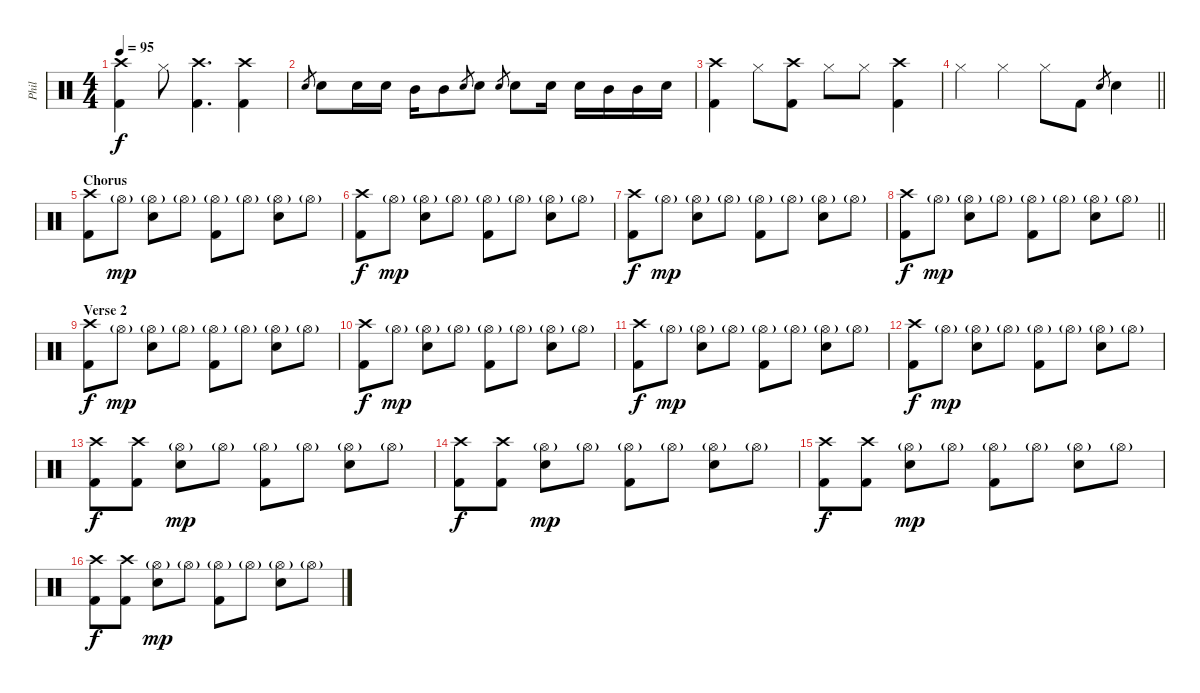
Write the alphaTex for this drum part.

\track ("Phil" "Phil") {instrument percussion}
\staff {score}
\articulation defaults
\ts (4 4)
\tempo 95
\clef neutral
\ks c
("Crash high (hit)" "Kick (hit) 2").4{dy f} "Hi-Hat (closed)".8 ("Crash high (hit)" "Kick (hit) 2").4{d} ("Crash high (hit)" "Kick (hit) 2").4 |
"Snare (hit) 2".8{gr} "Snare (hit) 2".8 "Snare (hit) 2".16 "Snare (hit) 2".16 "Mid Tom (hit)".16 "Mid Tom (hit)".8 "Snare (hit) 2".8{gr} "Snare (hit) 2".8 "Snare (hit) 2".8{gr} "Snare (hit) 2".8 "Snare (hit) 2".16 "Snare (hit) 2".16 "Mid Tom (hit)".16 "Mid Tom (hit)".16 "Snare (hit) 2".16 |
("Crash high (hit)" "Kick (hit) 2").4 "Hi-Hat (closed)".8 ("Crash high (hit)" "Kick (hit) 2").8 "Hi-Hat (closed)".8 "Hi-Hat (closed)".8 ("Crash high (hit)" "Kick (hit) 2").4 |
\barLineRight lightlight "Hi-Hat (closed)".4 "Hi-Hat (closed)".4 "Hi-Hat (closed)".8 "Kick (hit) 2".8 "Snare (hit) 2".8{gr} "Snare (hit) 2".4
|
\section ("" "Chorus")
("Crash high (hit)" "Kick (hit) 2").8 "Hi-Hat (open)"{g}.8{dy mp} ("Hi-Hat (open)"{g} "Snare (hit) 2").8 "Hi-Hat (open)"{g}.8 ("Hi-Hat (open)"{g} "Kick (hit) 2").8 "Hi-Hat (open)"{g}.8 ("Hi-Hat (open)"{g} "Snare (hit) 2").8 "Hi-Hat (open)"{g}.8 |
("Crash high (hit)" "Kick (hit) 2").8{dy f} "Hi-Hat (open)"{g}.8{dy mp} ("Hi-Hat (open)"{g} "Snare (hit) 2").8 "Hi-Hat (open)"{g}.8 ("Hi-Hat (open)"{g} "Kick (hit) 2").8 "Hi-Hat (open)"{g}.8 ("Hi-Hat (open)"{g} "Snare (hit) 2").8 "Hi-Hat (open)"{g}.8 |
("Crash high (hit)" "Kick (hit) 2").8{dy f} "Hi-Hat (open)"{g}.8{dy mp} ("Hi-Hat (open)"{g} "Snare (hit) 2").8 "Hi-Hat (open)"{g}.8 ("Hi-Hat (open)"{g} "Kick (hit) 2").8 "Hi-Hat (open)"{g}.8 ("Hi-Hat (open)"{g} "Snare (hit) 2").8 "Hi-Hat (open)"{g}.8 |
\barLineRight lightlight
("Crash high (hit)" "Kick (hit) 2").8{dy f} "Hi-Hat (open)"{g}.8{dy mp} ("Hi-Hat (open)"{g} "Snare (hit) 2").8 "Hi-Hat (open)"{g}.8 ("Hi-Hat (open)"{g} "Kick (hit) 2").8 "Hi-Hat (open)"{g}.8 ("Hi-Hat (open)"{g} "Snare (hit) 2").8 "Hi-Hat (open)"{g}.8 |
\section ("" "Verse 2")
("Crash high (hit)" "Kick (hit) 2").8{dy f} "Hi-Hat (open)"{g}.8{dy mp} ("Hi-Hat (open)"{g} "Snare (hit) 2").8 "Hi-Hat (open)"{g}.8 ("Hi-Hat (open)"{g} "Kick (hit) 2").8 "Hi-Hat (open)"{g}.8 ("Hi-Hat (open)"{g} "Snare (hit) 2").8 "Hi-Hat (open)"{g}.8 |
("Crash high (hit)" "Kick (hit) 2").8{dy f} "Hi-Hat (open)"{g}.8{dy mp} ("Hi-Hat (open)"{g} "Snare (hit) 2").8 "Hi-Hat (open)"{g}.8 ("Hi-Hat (open)"{g} "Kick (hit) 2").8 "Hi-Hat (open)"{g}.8 ("Hi-Hat (open)"{g} "Snare (hit) 2").8 "Hi-Hat (open)"{g}.8 |
("Crash high (hit)" "Kick (hit) 2").8{dy f} "Hi-Hat (open)"{g}.8{dy mp} ("Hi-Hat (open)"{g} "Snare (hit) 2").8 "Hi-Hat (open)"{g}.8 ("Hi-Hat (open)"{g} "Kick (hit) 2").8 "Hi-Hat (open)"{g}.8 ("Hi-Hat (open)"{g} "Snare (hit) 2").8 "Hi-Hat (open)"{g}.8 |
("Crash high (hit)" "Kick (hit) 2").8{dy f} "Hi-Hat (open)"{g}.8{dy mp} ("Hi-Hat (open)"{g} "Snare (hit) 2").8 "Hi-Hat (open)"{g}.8 ("Hi-Hat (open)"{g} "Kick (hit) 2").8 "Hi-Hat (open)"{g}.8 ("Hi-Hat (open)"{g} "Snare (hit) 2").8 "Hi-Hat (open)"{g}.8 |
("Crash high (hit)" "Kick (hit) 2").8{dy f} ("Crash high (hit)" "Kick (hit) 2").8 ("Hi-Hat (open)"{g} "Snare (hit) 2").8{dy mp} "Hi-Hat (open)"{g}.8 ("Hi-Hat (open)"{g} "Kick (hit) 2").8 "Hi-Hat (open)"{g}.8 ("Hi-Hat (open)"{g} "Snare (hit) 2").8 "Hi-Hat (open)"{g}.8 |
("Crash high (hit)" "Kick (hit) 2").8{dy f} ("Crash high (hit)" "Kick (hit) 2").8 ("Hi-Hat (open)"{g} "Snare (hit) 2").8{dy mp} "Hi-Hat (open)"{g}.8 ("Hi-Hat (open)"{g} "Kick (hit) 2").8 "Hi-Hat (open)"{g}.8 ("Hi-Hat (open)"{g} "Snare (hit) 2").8 "Hi-Hat (open)"{g}.8 |
("Crash high (hit)" "Kick (hit) 2").8{dy f} ("Crash high (hit)" "Kick (hit) 2").8 ("Hi-Hat (open)"{g} "Snare (hit) 2").8{dy mp} "Hi-Hat (open)"{g}.8 ("Hi-Hat (open)"{g} "Kick (hit) 2").8 "Hi-Hat (open)"{g}.8 ("Hi-Hat (open)"{g} "Snare (hit) 2").8 "Hi-Hat (open)"{g}.8 |
("Crash high (hit)" "Kick (hit) 2").8{dy f} ("Crash high (hit)" "Kick (hit) 2").8 ("Hi-Hat (open)"{g} "Snare (hit) 2").8{dy mp} "Hi-Hat (open)"{g}.8 ("Hi-Hat (open)"{g} "Kick (hit) 2").8 "Hi-Hat (open)"{g}.8 ("Hi-Hat (open)"{g} "Snare (hit) 2").8 "Hi-Hat (open)"{g}.8
